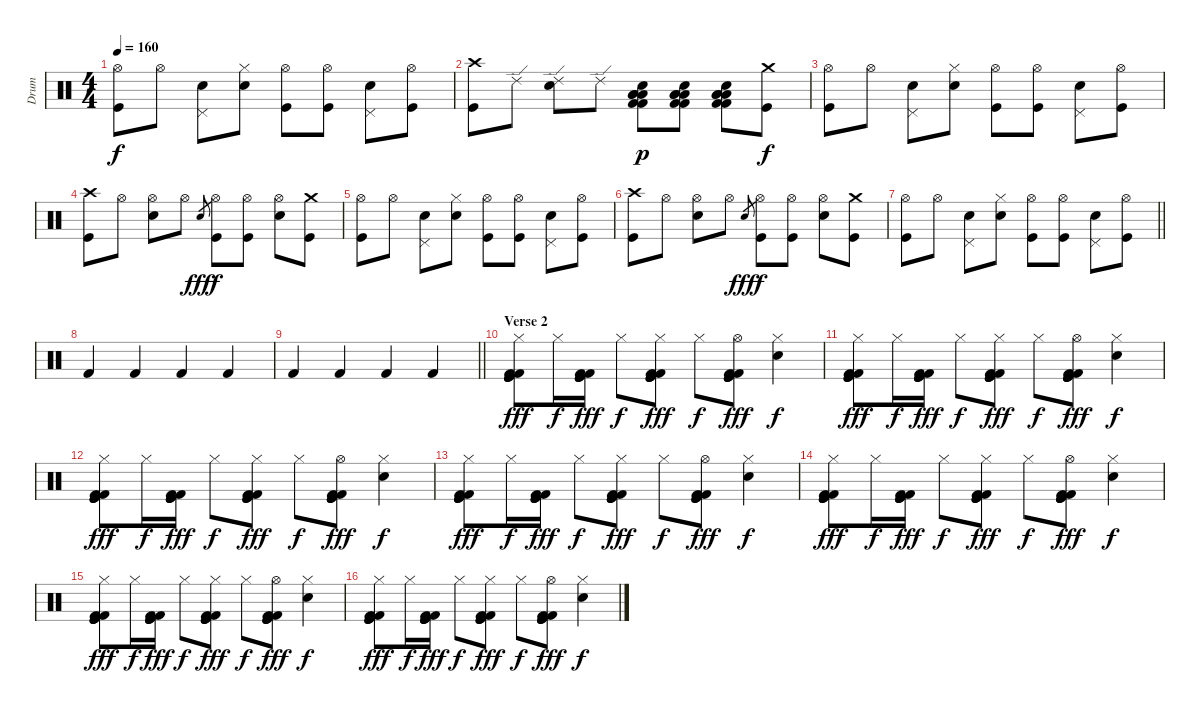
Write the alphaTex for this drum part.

\track ("Drum" "Drum") {instrument percussion}
\staff {score}
\articulation defaults
\ts (4 4)
\tempo 160
\clef neutral
\ks c
("Hi-Hat (open)" "Kick (hit)").8{dy f} "Hi-Hat (open)".8 ("Pedal Hi-Hat (hit)" "Electric Snare (hit)").8 ("Hi-Hat (closed)" "Electric Snare (hit)").8 ("Hi-Hat (open)" "Kick (hit)").8 ("Hi-Hat (open)" "Kick (hit)").8 ("Pedal Hi-Hat (hit)" "Electric Snare (hit)").8 ("Hi-Hat (open)" "Kick (hit)").8 |
("Crash high (hit)" "Kick (hit)").8 "Ride (edge) 2".8 ("Ride (edge) 2" "Electric Snare (hit)").8 "Ride (edge) 2".8 ("Low Tom (hit)" "Low Floor Tom (hit)" "Low Floor Tom (hit)" "Kick (hit) 2" "Snare (hit) 2" "Kick (hit) 2").8{dy p} ("Low Tom (hit)" "Low Floor Tom (hit)" "Low Floor Tom (hit)" "Kick (hit) 2" "Snare (hit) 2" "Kick (hit) 2").8 ("Low Tom (hit)" "Low Floor Tom (hit)" "Low Floor Tom (hit)" "Kick (hit) 2" "Snare (hit) 2" "Kick (hit) 2").8 ("Crash medium (hit)" "Kick (hit)").8{dy f} |
("Hi-Hat (open)" "Kick (hit)").8 "Hi-Hat (open)".8 ("Pedal Hi-Hat (hit)" "Electric Snare (hit)").8 ("Hi-Hat (closed)" "Electric Snare (hit)").8 ("Hi-Hat (open)" "Kick (hit)").8 ("Hi-Hat (open)" "Kick (hit)").8 ("Pedal Hi-Hat (hit)" "Electric Snare (hit)").8 ("Hi-Hat (open)" "Kick (hit)").8 |
("Crash high (hit)" "Kick (hit)").8 "Hi-Hat (open)".8 ("Hi-Hat (open)" "Electric Snare (hit)").8 "Hi-Hat (open)".8 "Electric Snare (hit)".8{gr dy fff} ("Hi-Hat (open)" "Kick (hit)").8{dy f} ("Hi-Hat (open)" "Kick (hit)").8 ("Hi-Hat (open)" "Electric Snare (hit)").8 ("Crash medium (hit)" "Kick (hit)").8 |
("Hi-Hat (open)" "Kick (hit)").8 "Hi-Hat (open)".8 ("Pedal Hi-Hat (hit)" "Electric Snare (hit)").8 ("Hi-Hat (closed)" "Electric Snare (hit)").8 ("Hi-Hat (open)" "Kick (hit)").8 ("Hi-Hat (open)" "Kick (hit)").8 ("Pedal Hi-Hat (hit)" "Electric Snare (hit)").8 ("Hi-Hat (open)" "Kick (hit)").8 |
("Crash high (hit)" "Kick (hit)").8 "Hi-Hat (open)".8 ("Hi-Hat (open)" "Electric Snare (hit)").8 "Hi-Hat (open)".8 "Electric Snare (hit)".8{gr dy fff} ("Hi-Hat (open)" "Kick (hit)").8{dy f} ("Hi-Hat (open)" "Kick (hit)").8 ("Hi-Hat (open)" "Electric Snare (hit)").8 ("Crash medium (hit)" "Kick (hit)").8 |
\barLineRight lightlight
("Hi-Hat (open)" "Kick (hit)").8 "Hi-Hat (open)".8 ("Pedal Hi-Hat (hit)" "Electric Snare (hit)").8 ("Hi-Hat (closed)" "Electric Snare (hit)").8 ("Hi-Hat (open)" "Kick (hit)").8 ("Hi-Hat (open)" "Kick (hit)").8 ("Pedal Hi-Hat (hit)" "Electric Snare (hit)").8 ("Hi-Hat (open)" "Kick (hit)").8 |
"Kick (hit) 2".4 "Kick (hit) 2".4 "Kick (hit) 2".4 "Kick (hit) 2".4 |
\barLineRight lightlight "Kick (hit) 2".4 "Kick (hit) 2".4 "Kick (hit) 2".4 "Kick (hit) 2".4
|
\section ("" "Verse 2")
("Hi-Hat (closed)" "Kick (hit)" "Kick (hit)" "Kick (hit)" "Kick (hit) 2" "Kick (hit) 2").8{dy fff} "Hi-Hat (closed)".16{dy f} ("Kick (hit)" "Kick (hit)" "Kick (hit)" "Kick (hit) 2" "Kick (hit) 2").16{dy fff} "Hi-Hat (closed)".8{dy f} ("Hi-Hat (closed)" "Kick (hit)" "Kick (hit)" "Kick (hit)" "Kick (hit) 2" "Kick (hit) 2").8{dy fff} "Hi-Hat (closed)".8{dy f} ("Hi-Hat (open)" "Kick (hit)" "Kick (hit)" "Kick (hit)" "Kick (hit) 2" "Kick (hit) 2").8{dy fff} ("Hi-Hat (closed)" "Electric Snare (hit)").4{dy f} |
("Hi-Hat (closed)" "Kick (hit)" "Kick (hit)" "Kick (hit)" "Kick (hit) 2" "Kick (hit) 2").8{dy fff} "Hi-Hat (closed)".16{dy f} ("Kick (hit)" "Kick (hit)" "Kick (hit)" "Kick (hit) 2" "Kick (hit) 2").16{dy fff} "Hi-Hat (closed)".8{dy f} ("Hi-Hat (closed)" "Kick (hit)" "Kick (hit)" "Kick (hit)" "Kick (hit) 2" "Kick (hit) 2").8{dy fff} "Hi-Hat (closed)".8{dy f} ("Hi-Hat (open)" "Kick (hit)" "Kick (hit)" "Kick (hit)" "Kick (hit) 2" "Kick (hit) 2").8{dy fff} ("Hi-Hat (closed)" "Electric Snare (hit)").4{dy f} |
("Hi-Hat (closed)" "Kick (hit)" "Kick (hit)" "Kick (hit)" "Kick (hit) 2" "Kick (hit) 2").8{dy fff} "Hi-Hat (closed)".16{dy f} ("Kick (hit)" "Kick (hit)" "Kick (hit)" "Kick (hit) 2" "Kick (hit) 2").16{dy fff} "Hi-Hat (closed)".8{dy f} ("Hi-Hat (closed)" "Kick (hit)" "Kick (hit)" "Kick (hit)" "Kick (hit) 2" "Kick (hit) 2").8{dy fff} "Hi-Hat (closed)".8{dy f} ("Hi-Hat (open)" "Kick (hit)" "Kick (hit)" "Kick (hit)" "Kick (hit) 2" "Kick (hit) 2").8{dy fff} ("Hi-Hat (closed)" "Electric Snare (hit)").4{dy f} |
("Hi-Hat (closed)" "Kick (hit)" "Kick (hit)" "Kick (hit)" "Kick (hit) 2" "Kick (hit) 2").8{dy fff} "Hi-Hat (closed)".16{dy f} ("Kick (hit)" "Kick (hit)" "Kick (hit)" "Kick (hit) 2" "Kick (hit) 2").16{dy fff} "Hi-Hat (closed)".8{dy f} ("Hi-Hat (closed)" "Kick (hit)" "Kick (hit)" "Kick (hit)" "Kick (hit) 2" "Kick (hit) 2").8{dy fff} "Hi-Hat (closed)".8{dy f} ("Hi-Hat (open)" "Kick (hit)" "Kick (hit)" "Kick (hit)" "Kick (hit) 2" "Kick (hit) 2").8{dy fff} ("Hi-Hat (closed)" "Electric Snare (hit)").4{dy f} |
("Hi-Hat (closed)" "Kick (hit)" "Kick (hit)" "Kick (hit)" "Kick (hit) 2" "Kick (hit) 2").8{dy fff} "Hi-Hat (closed)".16{dy f} ("Kick (hit)" "Kick (hit)" "Kick (hit)" "Kick (hit) 2" "Kick (hit) 2").16{dy fff} "Hi-Hat (closed)".8{dy f} ("Hi-Hat (closed)" "Kick (hit)" "Kick (hit)" "Kick (hit)" "Kick (hit) 2" "Kick (hit) 2").8{dy fff} "Hi-Hat (closed)".8{dy f} ("Hi-Hat (open)" "Kick (hit)" "Kick (hit)" "Kick (hit)" "Kick (hit) 2" "Kick (hit) 2").8{dy fff} ("Hi-Hat (closed)" "Electric Snare (hit)").4{dy f} |
("Hi-Hat (closed)" "Kick (hit)" "Kick (hit)" "Kick (hit)" "Kick (hit) 2" "Kick (hit) 2").8{dy fff} "Hi-Hat (closed)".16{dy f} ("Kick (hit)" "Kick (hit)" "Kick (hit)" "Kick (hit) 2" "Kick (hit) 2").16{dy fff} "Hi-Hat (closed)".8{dy f} ("Hi-Hat (closed)" "Kick (hit)" "Kick (hit)" "Kick (hit)" "Kick (hit) 2" "Kick (hit) 2").8{dy fff} "Hi-Hat (closed)".8{dy f} ("Hi-Hat (open)" "Kick (hit)" "Kick (hit)" "Kick (hit)" "Kick (hit) 2" "Kick (hit) 2").8{dy fff} ("Hi-Hat (closed)" "Electric Snare (hit)").4{dy f} |
("Hi-Hat (closed)" "Kick (hit)" "Kick (hit)" "Kick (hit)" "Kick (hit) 2" "Kick (hit) 2").8{dy fff} "Hi-Hat (closed)".16{dy f} ("Kick (hit)" "Kick (hit)" "Kick (hit)" "Kick (hit) 2" "Kick (hit) 2").16{dy fff} "Hi-Hat (closed)".8{dy f} ("Hi-Hat (closed)" "Kick (hit)" "Kick (hit)" "Kick (hit)" "Kick (hit) 2" "Kick (hit) 2").8{dy fff} "Hi-Hat (closed)".8{dy f} ("Hi-Hat (open)" "Kick (hit)" "Kick (hit)" "Kick (hit)" "Kick (hit) 2" "Kick (hit) 2").8{dy fff} ("Hi-Hat (closed)" "Electric Snare (hit)").4{dy f}
